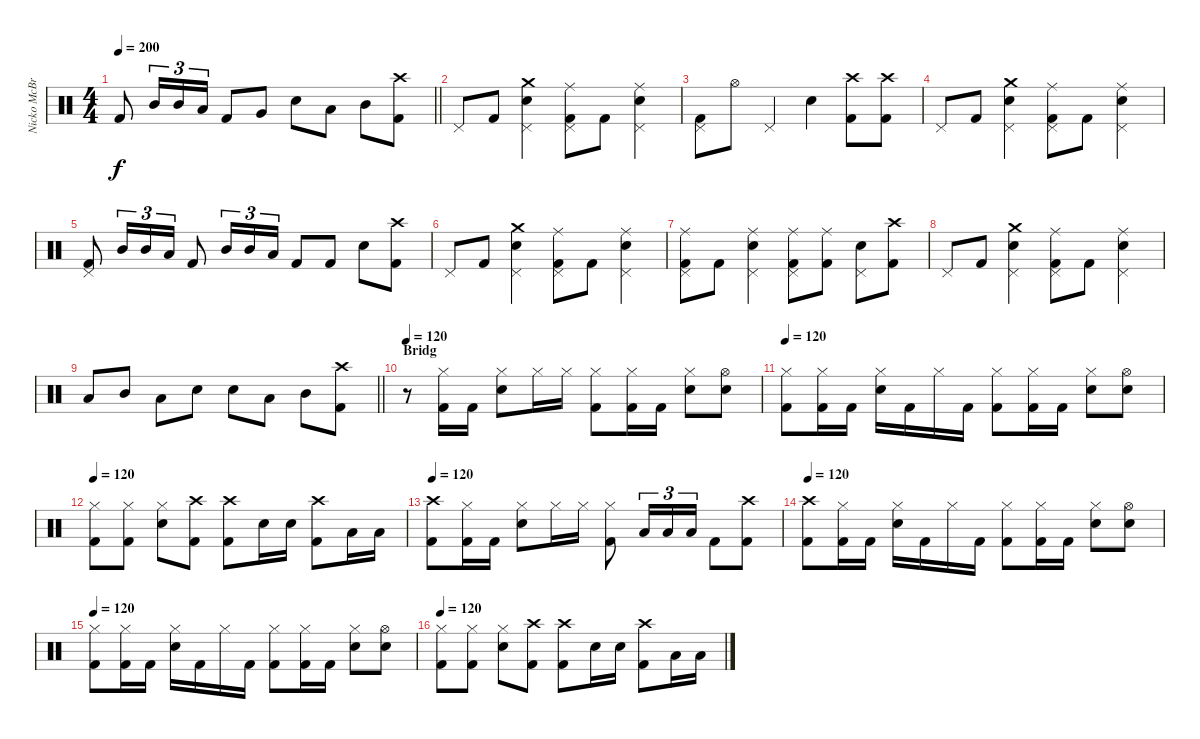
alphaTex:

\track ("Nicko McBrain" "Nicko McBr") {instrument percussion}
\staff {score}
\articulation defaults
\ts (4 4)
\tempo 200
\clef neutral
\barLineRight lightlight
\ks c "Kick (hit) 2".8{dy f} "Mid Tom (hit)".16{tu (3 2)} "Mid Tom (hit)".16{tu (3 2)} "Low Tom (hit)".16{tu (3 2)} "Kick (hit) 2".8 "Very Low Tom (hit)".8 "Snare (hit) 2".8 "Low Floor Tom (hit)".8 "Mid Tom (hit)".8
("Crash high (hit)" "Kick (hit) 2").8 |
"Pedal Hi-Hat (hit)".8 "Kick (hit) 2".8 ("Crash medium (hit)" "Snare (hit) 2" "Pedal Hi-Hat (hit)").4 ("Ride (middle)" "Pedal Hi-Hat (hit)" "Kick (hit) 2").8 "Kick (hit) 2".8 ("Ride (middle)" "Snare (hit) 2" "Pedal Hi-Hat (hit)").4 |
("Pedal Hi-Hat (hit)" "Kick (hit) 2").8 "Hi-Hat (open)".8 "Pedal Hi-Hat (hit)".4 "Snare (hit) 2".4 ("Crash high (hit)" "Kick (hit) 2").8 ("Crash high (hit)" "Kick (hit) 2").8 |
"Pedal Hi-Hat (hit)".8 "Kick (hit) 2".8 ("Crash medium (hit)" "Snare (hit) 2" "Pedal Hi-Hat (hit)").4 ("Ride (middle)" "Pedal Hi-Hat (hit)" "Kick (hit) 2").8 "Kick (hit) 2".8 ("Ride (middle)" "Snare (hit) 2" "Pedal Hi-Hat (hit)").4 |
("Pedal Hi-Hat (hit)" "Kick (hit) 2").8 "Mid Tom (hit)".16{tu (3 2)} "Mid Tom (hit)".16{tu (3 2)} "Low Tom (hit)".16{tu (3 2)} "Kick (hit) 2".8 "Mid Tom (hit)".16{tu (3 2)} "Mid Tom (hit)".16{tu (3 2)} "Low Tom (hit)".16{tu (3 2)} "Kick (hit) 2".8 "Kick (hit) 2".8 "Snare (hit) 2".8 ("Crash high (hit)" "Kick (hit) 2").8 |
"Pedal Hi-Hat (hit)".8 "Kick (hit) 2".8 ("Crash medium (hit)" "Snare (hit) 2" "Pedal Hi-Hat (hit)").4 ("Ride (middle)" "Pedal Hi-Hat (hit)" "Kick (hit) 2").8 "Kick (hit) 2".8 ("Ride (middle)" "Snare (hit) 2" "Pedal Hi-Hat (hit)").4 |
("Ride (middle)" "Pedal Hi-Hat (hit)" "Kick (hit) 2").8 "Kick (hit) 2".8 ("Ride (middle)" "Snare (hit) 2" "Pedal Hi-Hat (hit)").4 ("Ride (middle)" "Pedal Hi-Hat (hit)" "Kick (hit) 2").8 ("Ride (middle)" "Kick (hit) 2").8 ("Snare (hit) 2" "Pedal Hi-Hat (hit)").8 ("Crash high (hit)" "Kick (hit) 2").8 |
"Pedal Hi-Hat (hit)".8 "Kick (hit) 2".8 ("Crash medium (hit)" "Snare (hit) 2" "Pedal Hi-Hat (hit)").4 ("Ride (middle)" "Pedal Hi-Hat (hit)" "Kick (hit) 2").8 "Kick (hit) 2".8 ("Ride (middle)" "Snare (hit) 2" "Pedal Hi-Hat (hit)").4 |
\barLineRight lightlight "Low Floor Tom (hit)".8 "Mid Tom (hit)".8 "Low Floor Tom (hit)".8 "Snare (hit) 2".8 "Snare (hit) 2".8 "Low Floor Tom (hit)".8 "Mid Tom (hit)".8
("Crash high (hit)" "Kick (hit) 2").8 |
\section ("" "Bridg")
\tempo 120
r.8 ("Hi-Hat (closed)" "Kick (hit) 2").16 "Kick (hit) 2".16 ("Hi-Hat (closed)" "Snare (hit) 2").8 "Hi-Hat (closed)".16 "Hi-Hat (closed)".16 ("Hi-Hat (closed)" "Kick (hit) 2").8 ("Hi-Hat (closed)" "Kick (hit) 2").16 "Kick (hit) 2".16 ("Hi-Hat (closed)" "Snare (hit) 2").8 ("Hi-Hat (open)" "Snare (hit) 2").8 |
\tempo 120
("Hi-Hat (closed)" "Kick (hit) 2").8 ("Hi-Hat (closed)" "Kick (hit) 2").16 "Kick (hit) 2".16 ("Hi-Hat (closed)" "Snare (hit) 2").16 "Kick (hit) 2".16 "Hi-Hat (closed)".16 "Kick (hit) 2".16 ("Hi-Hat (closed)" "Kick (hit) 2").8 ("Hi-Hat (closed)" "Kick (hit) 2").16 "Kick (hit) 2".16 ("Hi-Hat (closed)" "Snare (hit) 2").8 ("Hi-Hat (open)" "Snare (hit) 2").8 |
\tempo 120
("Hi-Hat (closed)" "Kick (hit) 2").8 ("Hi-Hat (closed)" "Kick (hit) 2").8 ("Hi-Hat (closed)" "Snare (hit) 2").8 ("Crash high (hit)" "Kick (hit) 2").8 ("Crash high (hit)" "Kick (hit) 2").8 "Snare (hit) 2".16 "Snare (hit) 2".16 ("Crash high (hit)" "Kick (hit) 2").8 "Low Tom (hit)".16 "Low Tom (hit)".16 |
\tempo 120
("Crash high (hit)" "Kick (hit) 2").8 ("Hi-Hat (closed)" "Kick (hit) 2").16 "Kick (hit) 2".16 ("Hi-Hat (closed)" "Snare (hit) 2").8 "Hi-Hat (closed)".16 "Hi-Hat (closed)".16 ("Hi-Hat (closed)" "Kick (hit) 2").8 "Low Tom (hit)".16{tu (3 2)} "Low Tom (hit)".16{tu (3 2)} "Low Floor Tom (hit)".16{tu (3 2)} "Kick (hit) 2".8 ("Crash high (hit)" "Kick (hit) 2").8 |
\tempo 120
("Crash high (hit)" "Kick (hit) 2").8 ("Hi-Hat (closed)" "Kick (hit) 2").16 "Kick (hit) 2".16 ("Hi-Hat (closed)" "Snare (hit) 2").16 "Kick (hit) 2".16 "Hi-Hat (closed)".16 "Kick (hit) 2".16 ("Hi-Hat (closed)" "Kick (hit) 2").8 ("Hi-Hat (closed)" "Kick (hit) 2").16 "Kick (hit) 2".16 ("Hi-Hat (closed)" "Snare (hit) 2").8 ("Hi-Hat (open)" "Snare (hit) 2").8 |
\tempo 120
("Hi-Hat (closed)" "Kick (hit) 2").8 ("Hi-Hat (closed)" "Kick (hit) 2").16 "Kick (hit) 2".16 ("Hi-Hat (closed)" "Snare (hit) 2").16 "Kick (hit) 2".16 "Hi-Hat (closed)".16 "Kick (hit) 2".16 ("Hi-Hat (closed)" "Kick (hit) 2").8 ("Hi-Hat (closed)" "Kick (hit) 2").16 "Kick (hit) 2".16 ("Hi-Hat (closed)" "Snare (hit) 2").8 ("Hi-Hat (open)" "Snare (hit) 2").8 |
\tempo 120
("Hi-Hat (closed)" "Kick (hit) 2").8 ("Hi-Hat (closed)" "Kick (hit) 2").8 ("Hi-Hat (closed)" "Snare (hit) 2").8 ("Crash high (hit)" "Kick (hit) 2").8 ("Crash high (hit)" "Kick (hit) 2").8 "Snare (hit) 2".16 "Snare (hit) 2".16 ("Crash high (hit)" "Kick (hit) 2").8 "Low Tom (hit)".16 "Low Tom (hit)".16
